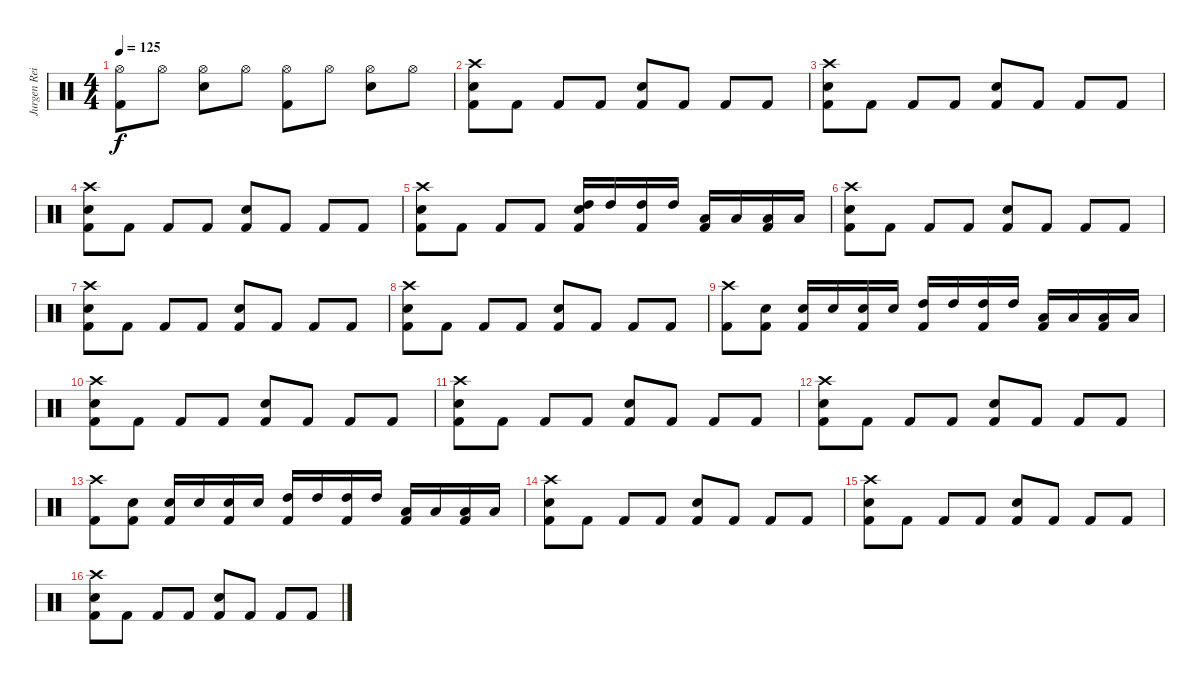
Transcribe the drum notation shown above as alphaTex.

\track ("Jurgen Reil" "Jurgen Rei") {instrument percussion}
\staff {score}
\articulation defaults
\ts (4 4)
\tempo 125
\clef neutral
\ks c
("Hi-Hat (open)" "Kick (hit) 2").8{dy f} "Hi-Hat (open)".8 ("Hi-Hat (open)" "Snare (hit) 2").8 "Hi-Hat (open)".8 ("Hi-Hat (open)" "Kick (hit) 2").8 "Hi-Hat (open)".8 ("Hi-Hat (open)" "Snare (hit) 2").8 "Hi-Hat (open)".8 |
("Snare (hit) 2" "Crash high (hit)" "Kick (hit) 2").8 "Kick (hit) 2".8 "Kick (hit) 2".8 "Kick (hit) 2".8 ("Snare (hit) 2" "Kick (hit) 2").8 "Kick (hit) 2".8 "Kick (hit) 2".8 "Kick (hit) 2".8 |
("Snare (hit) 2" "Crash high (hit)" "Kick (hit) 2").8 "Kick (hit) 2".8 "Kick (hit) 2".8 "Kick (hit) 2".8 ("Snare (hit) 2" "Kick (hit) 2").8 "Kick (hit) 2".8 "Kick (hit) 2".8 "Kick (hit) 2".8 |
("Snare (hit) 2" "Crash high (hit)" "Kick (hit) 2").8 "Kick (hit) 2".8 "Kick (hit) 2".8 "Kick (hit) 2".8 ("Snare (hit) 2" "Kick (hit) 2").8 "Kick (hit) 2".8 "Kick (hit) 2".8 "Kick (hit) 2".8 |
("Snare (hit) 2" "Crash high (hit)" "Kick (hit) 2").8 "Kick (hit) 2".8 "Kick (hit) 2".8 "Kick (hit) 2".8 ("Snare (hit) 2" "Kick (hit) 2" "High Tom (hit)").16 "High Tom (hit)".16 ("Kick (hit) 2" "High Tom (hit)").16 "High Tom (hit)".16 ("Kick (hit) 2" "Low Tom (hit)").16 "Low Tom (hit)".16 ("Kick (hit) 2" "Low Tom (hit)").16 "Low Tom (hit)".16 |
("Snare (hit) 2" "Crash high (hit)" "Kick (hit) 2").8 "Kick (hit) 2".8 "Kick (hit) 2".8 "Kick (hit) 2".8 ("Snare (hit) 2" "Kick (hit) 2").8 "Kick (hit) 2".8 "Kick (hit) 2".8 "Kick (hit) 2".8 |
("Snare (hit) 2" "Crash high (hit)" "Kick (hit) 2").8 "Kick (hit) 2".8 "Kick (hit) 2".8 "Kick (hit) 2".8 ("Snare (hit) 2" "Kick (hit) 2").8 "Kick (hit) 2".8 "Kick (hit) 2".8 "Kick (hit) 2".8 |
("Snare (hit) 2" "Crash high (hit)" "Kick (hit) 2").8 "Kick (hit) 2".8 "Kick (hit) 2".8 "Kick (hit) 2".8 ("Snare (hit) 2" "Kick (hit) 2").8 "Kick (hit) 2".8 "Kick (hit) 2".8 "Kick (hit) 2".8 |
("Crash high (hit)" "Kick (hit) 2").8 ("Snare (hit) 2" "Kick (hit) 2").8 ("Kick (hit) 2" "Snare (hit) 2").16 "Snare (hit) 2".16 ("Kick (hit) 2" "Snare (hit) 2").16 "Snare (hit) 2".16 ("Kick (hit) 2" "High Tom (hit)").16 "High Tom (hit)".16 ("Kick (hit) 2" "High Tom (hit)").16 "High Tom (hit)".16 ("Kick (hit) 2" "Low Tom (hit)").16 "Low Tom (hit)".16 ("Kick (hit) 2" "Low Tom (hit)").16 "Low Tom (hit)".16 |
("Snare (hit) 2" "Crash high (hit)" "Kick (hit) 2").8 "Kick (hit) 2".8 "Kick (hit) 2".8 "Kick (hit) 2".8 ("Snare (hit) 2" "Kick (hit) 2").8 "Kick (hit) 2".8 "Kick (hit) 2".8 "Kick (hit) 2".8 |
("Snare (hit) 2" "Crash high (hit)" "Kick (hit) 2").8 "Kick (hit) 2".8 "Kick (hit) 2".8 "Kick (hit) 2".8 ("Snare (hit) 2" "Kick (hit) 2").8 "Kick (hit) 2".8 "Kick (hit) 2".8 "Kick (hit) 2".8 |
("Snare (hit) 2" "Crash high (hit)" "Kick (hit) 2").8 "Kick (hit) 2".8 "Kick (hit) 2".8 "Kick (hit) 2".8 ("Snare (hit) 2" "Kick (hit) 2").8 "Kick (hit) 2".8 "Kick (hit) 2".8 "Kick (hit) 2".8 |
("Crash high (hit)" "Kick (hit) 2").8 ("Snare (hit) 2" "Kick (hit) 2").8 ("Kick (hit) 2" "Snare (hit) 2").16 "Snare (hit) 2".16 ("Kick (hit) 2" "Snare (hit) 2").16 "Snare (hit) 2".16 ("Kick (hit) 2" "High Tom (hit)").16 "High Tom (hit)".16 ("Kick (hit) 2" "High Tom (hit)").16 "High Tom (hit)".16 ("Kick (hit) 2" "Low Tom (hit)").16 "Low Tom (hit)".16 ("Kick (hit) 2" "Low Tom (hit)").16 "Low Tom (hit)".16 |
("Snare (hit) 2" "Crash high (hit)" "Kick (hit) 2").8 "Kick (hit) 2".8 "Kick (hit) 2".8 "Kick (hit) 2".8 ("Snare (hit) 2" "Kick (hit) 2").8 "Kick (hit) 2".8 "Kick (hit) 2".8 "Kick (hit) 2".8 |
("Snare (hit) 2" "Crash high (hit)" "Kick (hit) 2").8 "Kick (hit) 2".8 "Kick (hit) 2".8 "Kick (hit) 2".8 ("Snare (hit) 2" "Kick (hit) 2").8 "Kick (hit) 2".8 "Kick (hit) 2".8 "Kick (hit) 2".8 |
("Snare (hit) 2" "Crash high (hit)" "Kick (hit) 2").8 "Kick (hit) 2".8 "Kick (hit) 2".8 "Kick (hit) 2".8 ("Snare (hit) 2" "Kick (hit) 2").8 "Kick (hit) 2".8 "Kick (hit) 2".8 "Kick (hit) 2".8
